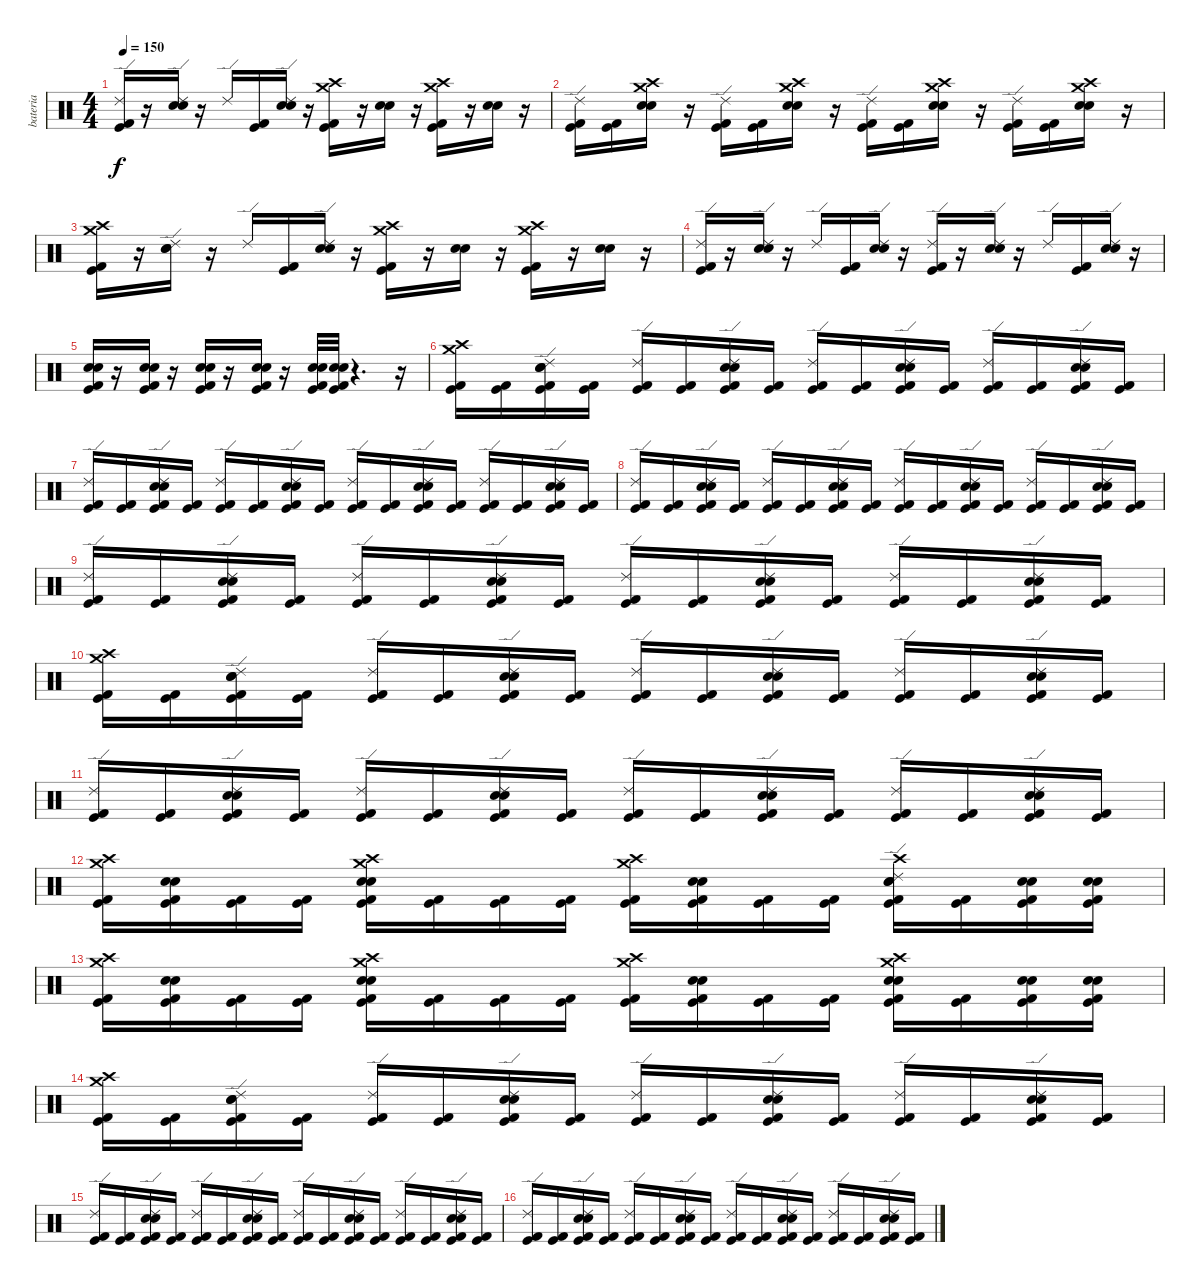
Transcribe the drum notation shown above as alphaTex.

\track ("bateria" "bateria") {instrument percussion}
\staff {score}
\articulation defaults
\ts (4 4)
\tempo 150
\clef neutral
\ks c
("Ride (edge) 2" "Kick (hit) 2" "Kick (hit)").16{dy f} r.16 ("Ride (edge) 2" "Electric Snare (hit)" "Snare (hit) 2").16 r.16 "Ride (edge) 2".16 ("Kick (hit) 2" "Kick (hit)").16 ("Ride (edge) 2" "Electric Snare (hit)" "Snare (hit) 2").16 r.16 ("Crash high (hit)" "Crash medium (hit)" "Kick (hit) 2" "Kick (hit)").16 r.16 ("Electric Snare (hit)" "Snare (hit) 2").16 r.16 ("Crash high (hit)" "Crash medium (hit)" "Kick (hit)" "Kick (hit) 2").16 r.16 ("Electric Snare (hit)" "Snare (hit) 2").16 r.16 |
("Ride (edge) 2" "Kick (hit) 2" "Kick (hit)").16 ("Kick (hit) 2" "Kick (hit)").16 ("Crash high (hit)" "Crash medium (hit)" "Electric Snare (hit)" "Snare (hit) 2").16 r.16 ("Ride (edge) 2" "Kick (hit) 2" "Kick (hit)").16 ("Kick (hit) 2" "Kick (hit)").16 ("Crash high (hit)" "Crash medium (hit)" "Electric Snare (hit)" "Snare (hit) 2").16 r.16 ("Ride (edge) 2" "Kick (hit) 2" "Kick (hit)").16 ("Kick (hit) 2" "Kick (hit)").16 ("Crash high (hit)" "Crash medium (hit)" "Electric Snare (hit)" "Snare (hit) 2").16 r.16 ("Ride (edge) 2" "Kick (hit) 2" "Kick (hit)").16 ("Kick (hit) 2" "Kick (hit)").16 ("Crash medium (hit)" "Crash high (hit)" "Electric Snare (hit)" "Snare (hit) 2").16 r.16 |
("Crash medium (hit)" "Crash high (hit)" "Kick (hit) 2" "Kick (hit)").16 r.16 ("Ride (edge) 2" "Electric Snare (hit)" "Snare (hit) 2").16 r.16 "Ride (edge) 2".16 ("Kick (hit) 2" "Kick (hit)").16 ("Ride (edge) 2" "Electric Snare (hit)" "Snare (hit) 2").16 r.16 ("Crash high (hit)" "Crash medium (hit)" "Kick (hit) 2" "Kick (hit)").16 r.16 ("Electric Snare (hit)" "Snare (hit) 2").16 r.16 ("Crash high (hit)" "Crash medium (hit)" "Kick (hit) 2" "Kick (hit)").16 r.16 ("Electric Snare (hit)" "Snare (hit) 2").16 r.16 |
("Ride (edge) 2" "Kick (hit) 2" "Kick (hit)").16 r.16 ("Ride (edge) 2" "Electric Snare (hit)" "Snare (hit) 2").16 r.16 "Ride (edge) 2".16 ("Kick (hit)" "Kick (hit) 2").16 ("Ride (edge) 2" "Electric Snare (hit)" "Snare (hit) 2").16 r.16 ("Ride (edge) 2" "Kick (hit) 2" "Kick (hit)").16 r.16 ("Ride (edge) 2" "Electric Snare (hit)" "Snare (hit) 2").16 r.16 "Ride (edge) 2".16 ("Kick (hit)" "Kick (hit) 2").16 ("Ride (edge) 2" "Electric Snare (hit)" "Snare (hit) 2").16 r.16 |
("Kick (hit) 2" "Snare (hit) 2" "Electric Snare (hit)" "Kick (hit)").16 r.16 ("Electric Snare (hit)" "Snare (hit) 2" "Kick (hit) 2" "Kick (hit)").16 r.16 ("Kick (hit) 2" "Snare (hit) 2" "Electric Snare (hit)" "Kick (hit)").16 r.16 ("Electric Snare (hit)" "Snare (hit) 2" "Kick (hit) 2" "Kick (hit)").16 r.16 ("Kick (hit) 2" "Kick (hit)" "Electric Snare (hit)" "Snare (hit) 2").32 ("Kick (hit) 2" "Kick (hit)" "Electric Snare (hit)" "Snare (hit) 2").32 r.4{d} r.16 |
("Crash high (hit)" "Crash medium (hit)" "Kick (hit) 2" "Kick (hit)").16 ("Kick (hit) 2" "Kick (hit)").16 ("Ride (edge) 2" "Snare (hit) 2" "Electric Snare (hit)" "Kick (hit) 2" "Kick (hit)").16 ("Kick (hit) 2" "Kick (hit)").16 ("Ride (edge) 2" "Kick (hit) 2" "Kick (hit)").16 ("Kick (hit) 2" "Kick (hit)").16 ("Ride (edge) 2" "Electric Snare (hit)" "Snare (hit) 2" "Kick (hit) 2" "Kick (hit)").16 ("Kick (hit) 2" "Kick (hit)").16 ("Ride (edge) 2" "Kick (hit) 2" "Kick (hit)").16 ("Kick (hit) 2" "Kick (hit)").16 ("Ride (edge) 2" "Snare (hit) 2" "Electric Snare (hit)" "Kick (hit) 2" "Kick (hit)").16 ("Kick (hit) 2" "Kick (hit)").16 ("Ride (edge) 2" "Kick (hit) 2" "Kick (hit)").16 ("Kick (hit) 2" "Kick (hit)").16 ("Ride (edge) 2" "Electric Snare (hit)" "Snare (hit) 2" "Kick (hit) 2" "Kick (hit)").16 ("Kick (hit) 2" "Kick (hit)").16 |
("Ride (edge) 2" "Kick (hit) 2" "Kick (hit)").16 ("Kick (hit) 2" "Kick (hit)").16 ("Ride (edge) 2" "Snare (hit) 2" "Electric Snare (hit)" "Kick (hit) 2" "Kick (hit)").16 ("Kick (hit) 2" "Kick (hit)").16 ("Ride (edge) 2" "Kick (hit) 2" "Kick (hit)").16 ("Kick (hit) 2" "Kick (hit)").16 ("Ride (edge) 2" "Electric Snare (hit)" "Snare (hit) 2" "Kick (hit) 2" "Kick (hit)").16 ("Kick (hit) 2" "Kick (hit)").16 ("Ride (edge) 2" "Kick (hit) 2" "Kick (hit)").16 ("Kick (hit) 2" "Kick (hit)").16 ("Ride (edge) 2" "Snare (hit) 2" "Electric Snare (hit)" "Kick (hit) 2" "Kick (hit)").16 ("Kick (hit) 2" "Kick (hit)").16 ("Ride (edge) 2" "Kick (hit) 2" "Kick (hit)").16 ("Kick (hit) 2" "Kick (hit)").16 ("Ride (edge) 2" "Electric Snare (hit)" "Snare (hit) 2" "Kick (hit) 2" "Kick (hit)").16 ("Kick (hit) 2" "Kick (hit)").16 |
("Ride (edge) 2" "Kick (hit) 2" "Kick (hit)").16 ("Kick (hit) 2" "Kick (hit)").16 ("Ride (edge) 2" "Snare (hit) 2" "Electric Snare (hit)" "Kick (hit) 2" "Kick (hit)").16 ("Kick (hit) 2" "Kick (hit)").16 ("Ride (edge) 2" "Kick (hit) 2" "Kick (hit)").16 ("Kick (hit) 2" "Kick (hit)").16 ("Ride (edge) 2" "Electric Snare (hit)" "Snare (hit) 2" "Kick (hit) 2" "Kick (hit)").16 ("Kick (hit) 2" "Kick (hit)").16 ("Ride (edge) 2" "Kick (hit) 2" "Kick (hit)").16 ("Kick (hit) 2" "Kick (hit)").16 ("Ride (edge) 2" "Snare (hit) 2" "Electric Snare (hit)" "Kick (hit) 2" "Kick (hit)").16 ("Kick (hit) 2" "Kick (hit)").16 ("Ride (edge) 2" "Kick (hit) 2" "Kick (hit)").16 ("Kick (hit) 2" "Kick (hit)").16 ("Ride (edge) 2" "Electric Snare (hit)" "Snare (hit) 2" "Kick (hit) 2" "Kick (hit)").16 ("Kick (hit) 2" "Kick (hit)").16 |
("Ride (edge) 2" "Kick (hit) 2" "Kick (hit)").16 ("Kick (hit) 2" "Kick (hit)").16 ("Ride (edge) 2" "Snare (hit) 2" "Electric Snare (hit)" "Kick (hit) 2" "Kick (hit)").16 ("Kick (hit) 2" "Kick (hit)").16 ("Ride (edge) 2" "Kick (hit) 2" "Kick (hit)").16 ("Kick (hit) 2" "Kick (hit)").16 ("Ride (edge) 2" "Electric Snare (hit)" "Snare (hit) 2" "Kick (hit) 2" "Kick (hit)").16 ("Kick (hit) 2" "Kick (hit)").16 ("Ride (edge) 2" "Kick (hit) 2" "Kick (hit)").16 ("Kick (hit) 2" "Kick (hit)").16 ("Ride (edge) 2" "Snare (hit) 2" "Electric Snare (hit)" "Kick (hit) 2" "Kick (hit)").16 ("Kick (hit) 2" "Kick (hit)").16 ("Ride (edge) 2" "Kick (hit) 2" "Kick (hit)").16 ("Kick (hit) 2" "Kick (hit)").16 ("Ride (edge) 2" "Electric Snare (hit)" "Snare (hit) 2" "Kick (hit) 2" "Kick (hit)").16 ("Kick (hit) 2" "Kick (hit)").16 |
("Crash high (hit)" "Crash medium (hit)" "Kick (hit) 2" "Kick (hit)").16 ("Kick (hit) 2" "Kick (hit)").16 ("Ride (edge) 2" "Snare (hit) 2" "Electric Snare (hit)" "Kick (hit) 2" "Kick (hit)").16 ("Kick (hit) 2" "Kick (hit)").16 ("Ride (edge) 2" "Kick (hit) 2" "Kick (hit)").16 ("Kick (hit) 2" "Kick (hit)").16 ("Ride (edge) 2" "Electric Snare (hit)" "Snare (hit) 2" "Kick (hit) 2" "Kick (hit)").16 ("Kick (hit) 2" "Kick (hit)").16 ("Ride (edge) 2" "Kick (hit) 2" "Kick (hit)").16 ("Kick (hit) 2" "Kick (hit)").16 ("Ride (edge) 2" "Snare (hit) 2" "Electric Snare (hit)" "Kick (hit) 2" "Kick (hit)").16 ("Kick (hit) 2" "Kick (hit)").16 ("Ride (edge) 2" "Kick (hit) 2" "Kick (hit)").16 ("Kick (hit) 2" "Kick (hit)").16 ("Ride (edge) 2" "Electric Snare (hit)" "Snare (hit) 2" "Kick (hit) 2" "Kick (hit)").16 ("Kick (hit) 2" "Kick (hit)").16 |
("Ride (edge) 2" "Kick (hit) 2" "Kick (hit)").16 ("Kick (hit) 2" "Kick (hit)").16 ("Ride (edge) 2" "Snare (hit) 2" "Electric Snare (hit)" "Kick (hit) 2" "Kick (hit)").16 ("Kick (hit) 2" "Kick (hit)").16 ("Ride (edge) 2" "Kick (hit) 2" "Kick (hit)").16 ("Kick (hit) 2" "Kick (hit)").16 ("Ride (edge) 2" "Electric Snare (hit)" "Snare (hit) 2" "Kick (hit) 2" "Kick (hit)").16 ("Kick (hit) 2" "Kick (hit)").16 ("Ride (edge) 2" "Kick (hit) 2" "Kick (hit)").16 ("Kick (hit) 2" "Kick (hit)").16 ("Ride (edge) 2" "Snare (hit) 2" "Electric Snare (hit)" "Kick (hit) 2" "Kick (hit)").16 ("Kick (hit) 2" "Kick (hit)").16 ("Ride (edge) 2" "Kick (hit) 2" "Kick (hit)").16 ("Kick (hit) 2" "Kick (hit)").16 ("Ride (edge) 2" "Electric Snare (hit)" "Snare (hit) 2" "Kick (hit) 2" "Kick (hit)").16 ("Kick (hit) 2" "Kick (hit)").16 |
("Crash high (hit)" "Crash medium (hit)" "Kick (hit) 2" "Kick (hit)").16 ("Electric Snare (hit)" "Snare (hit) 2" "Kick (hit) 2" "Kick (hit)").16 ("Kick (hit) 2" "Kick (hit)").16 ("Kick (hit) 2" "Kick (hit)").16 ("Electric Snare (hit)" "Snare (hit) 2" "Crash high (hit)" "Crash medium (hit)" "Kick (hit) 2" "Kick (hit)").16 ("Kick (hit) 2" "Kick (hit)").16 ("Kick (hit) 2" "Kick (hit)").16 ("Kick (hit) 2" "Kick (hit)").16 ("Crash high (hit)" "Crash medium (hit)" "Kick (hit) 2" "Kick (hit)").16 ("Electric Snare (hit)" "Snare (hit) 2" "Kick (hit) 2" "Kick (hit)").16 ("Kick (hit) 2" "Kick (hit)").16 ("Kick (hit) 2" "Kick (hit)").16 ("Electric Snare (hit)" "Crash high (hit)" "Snare (hit) 2" "Ride (edge) 2" "Kick (hit) 2" "Kick (hit)").16 ("Kick (hit) 2" "Kick (hit)").16 ("Electric Snare (hit)" "Snare (hit) 2" "Kick (hit) 2" "Kick (hit)").16 ("Electric Snare (hit)" "Snare (hit) 2" "Kick (hit) 2" "Kick (hit)").16 |
("Crash high (hit)" "Crash medium (hit)" "Kick (hit) 2" "Kick (hit)").16 ("Electric Snare (hit)" "Snare (hit) 2" "Kick (hit) 2" "Kick (hit)").16 ("Kick (hit) 2" "Kick (hit)").16 ("Kick (hit) 2" "Kick (hit)").16 ("Crash high (hit)" "Electric Snare (hit)" "Snare (hit) 2" "Crash medium (hit)" "Kick (hit) 2" "Kick (hit)").16 ("Kick (hit) 2" "Kick (hit)").16 ("Kick (hit) 2" "Kick (hit)").16 ("Kick (hit) 2" "Kick (hit)").16 ("Crash high (hit)" "Crash medium (hit)" "Kick (hit) 2" "Kick (hit)").16 ("Electric Snare (hit)" "Snare (hit) 2" "Kick (hit) 2" "Kick (hit)").16 ("Kick (hit) 2" "Kick (hit)").16 ("Kick (hit) 2" "Kick (hit)").16 ("Electric Snare (hit)" "Snare (hit) 2" "Crash high (hit)" "Crash medium (hit)" "Kick (hit) 2" "Kick (hit)").16 ("Kick (hit) 2" "Kick (hit)").16 ("Electric Snare (hit)" "Snare (hit) 2" "Kick (hit) 2" "Kick (hit)").16 ("Electric Snare (hit)" "Snare (hit) 2" "Kick (hit) 2" "Kick (hit)").16 |
("Crash high (hit)" "Crash medium (hit)" "Kick (hit) 2" "Kick (hit)").16 ("Kick (hit) 2" "Kick (hit)").16 ("Ride (edge) 2" "Snare (hit) 2" "Electric Snare (hit)" "Kick (hit) 2" "Kick (hit)").16 ("Kick (hit) 2" "Kick (hit)").16 ("Ride (edge) 2" "Kick (hit) 2" "Kick (hit)").16 ("Kick (hit) 2" "Kick (hit)").16 ("Ride (edge) 2" "Electric Snare (hit)" "Snare (hit) 2" "Kick (hit) 2" "Kick (hit)").16 ("Kick (hit) 2" "Kick (hit)").16 ("Ride (edge) 2" "Kick (hit) 2" "Kick (hit)").16 ("Kick (hit) 2" "Kick (hit)").16 ("Ride (edge) 2" "Snare (hit) 2" "Electric Snare (hit)" "Kick (hit) 2" "Kick (hit)").16 ("Kick (hit) 2" "Kick (hit)").16 ("Ride (edge) 2" "Kick (hit) 2" "Kick (hit)").16 ("Kick (hit) 2" "Kick (hit)").16 ("Ride (edge) 2" "Electric Snare (hit)" "Snare (hit) 2" "Kick (hit) 2" "Kick (hit)").16 ("Kick (hit) 2" "Kick (hit)").16 |
("Ride (edge) 2" "Kick (hit) 2" "Kick (hit)").16 ("Kick (hit) 2" "Kick (hit)").16 ("Ride (edge) 2" "Snare (hit) 2" "Electric Snare (hit)" "Kick (hit) 2" "Kick (hit)").16 ("Kick (hit) 2" "Kick (hit)").16 ("Ride (edge) 2" "Kick (hit) 2" "Kick (hit)").16 ("Kick (hit) 2" "Kick (hit)").16 ("Ride (edge) 2" "Electric Snare (hit)" "Snare (hit) 2" "Kick (hit) 2" "Kick (hit)").16 ("Kick (hit) 2" "Kick (hit)").16 ("Ride (edge) 2" "Kick (hit) 2" "Kick (hit)").16 ("Kick (hit) 2" "Kick (hit)").16 ("Ride (edge) 2" "Snare (hit) 2" "Electric Snare (hit)" "Kick (hit) 2" "Kick (hit)").16 ("Kick (hit) 2" "Kick (hit)").16 ("Ride (edge) 2" "Kick (hit) 2" "Kick (hit)").16 ("Kick (hit) 2" "Kick (hit)").16 ("Ride (edge) 2" "Electric Snare (hit)" "Snare (hit) 2" "Kick (hit) 2" "Kick (hit)").16 ("Kick (hit) 2" "Kick (hit)").16 |
("Ride (edge) 2" "Kick (hit) 2" "Kick (hit)").16 ("Kick (hit) 2" "Kick (hit)").16 ("Ride (edge) 2" "Snare (hit) 2" "Electric Snare (hit)" "Kick (hit) 2" "Kick (hit)").16 ("Kick (hit) 2" "Kick (hit)").16 ("Ride (edge) 2" "Kick (hit) 2" "Kick (hit)").16 ("Kick (hit) 2" "Kick (hit)").16 ("Ride (edge) 2" "Electric Snare (hit)" "Snare (hit) 2" "Kick (hit) 2" "Kick (hit)").16 ("Kick (hit) 2" "Kick (hit)").16 ("Ride (edge) 2" "Kick (hit) 2" "Kick (hit)").16 ("Kick (hit) 2" "Kick (hit)").16 ("Ride (edge) 2" "Snare (hit) 2" "Electric Snare (hit)" "Kick (hit) 2" "Kick (hit)").16 ("Kick (hit) 2" "Kick (hit)").16 ("Ride (edge) 2" "Kick (hit) 2" "Kick (hit)").16 ("Kick (hit) 2" "Kick (hit)").16 ("Ride (edge) 2" "Electric Snare (hit)" "Snare (hit) 2" "Kick (hit) 2" "Kick (hit)").16 ("Kick (hit) 2" "Kick (hit)").16
